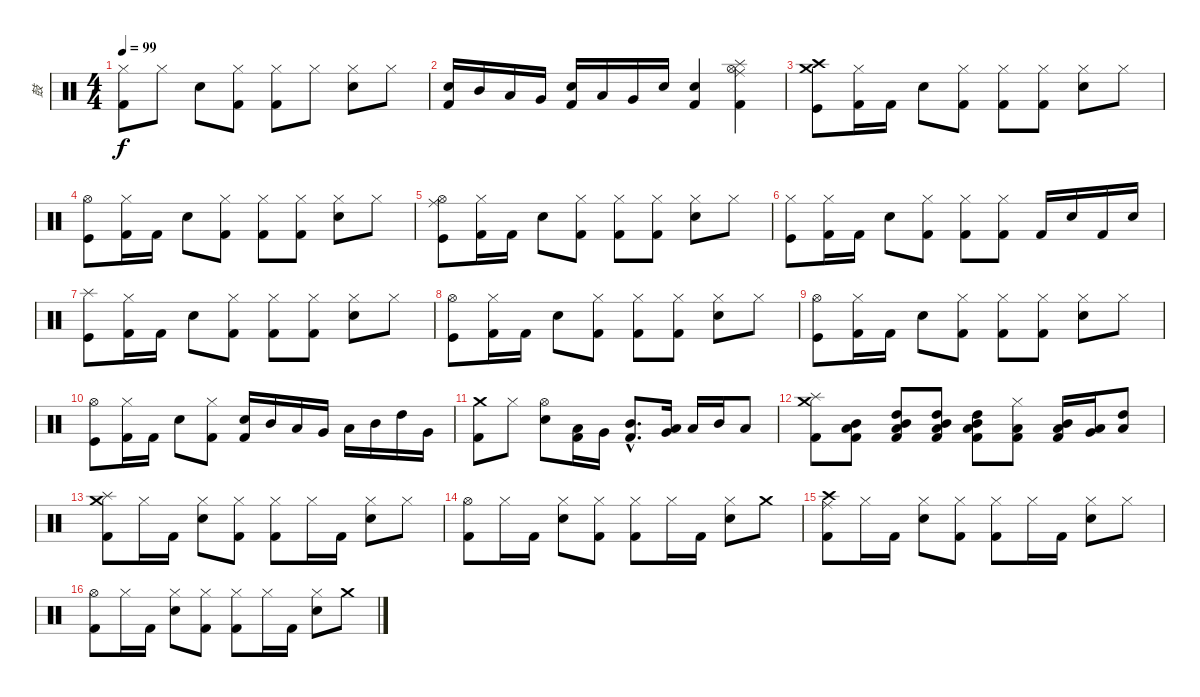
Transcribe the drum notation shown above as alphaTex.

\track ("鼓" "鼓") {instrument percussion}
\staff {score}
\articulation defaults
\ts (4 4)
\tempo 99
\clef neutral
\ks c
("Hi-Hat (closed)" "Kick (hit) 2").8{dy f} "Hi-Hat (closed)".8 "Electric Snare (hit)".8 ("Hi-Hat (closed)" "Kick (hit) 2").8 ("Hi-Hat (closed)" "Kick (hit) 2").8 "Hi-Hat (closed)".8 ("Hi-Hat (closed)" "Electric Snare (hit)").8 "Hi-Hat (closed)".8 |
("Electric Snare (hit)" "Kick (hit) 2").16 "Mid Tom (hit)".16 "Low Tom (hit)".16 "Very Low Tom (hit)".16 ("Electric Snare (hit)" "Kick (hit) 2").16 "Low Tom (hit)".16 "Very Low Tom (hit)".16 "Electric Snare (hit)".16 ("Electric Snare (hit)" "Kick (hit) 2").4 ("Splash (hit)" "Ride (middle)" "Hi-Hat (open)" "Kick (hit) 2").4 |
("Crash medium (hit)" "Crash high (hit)" "Kick (hit)").8 ("Hi-Hat (closed)" "Kick (hit) 2").16 "Kick (hit) 2".16 "Electric Snare (hit)".8 ("Hi-Hat (closed)" "Kick (hit) 2").8 ("Hi-Hat (closed)" "Kick (hit) 2").8 ("Hi-Hat (closed)" "Kick (hit) 2").8 ("Hi-Hat (closed)" "Electric Snare (hit)").8 "Hi-Hat (closed)".8 |
("Hi-Hat (open)" "Kick (hit)").8 ("Hi-Hat (closed)" "Kick (hit) 2").16 "Kick (hit) 2".16 "Electric Snare (hit)".8 ("Hi-Hat (closed)" "Kick (hit) 2").8 ("Hi-Hat (closed)" "Kick (hit) 2").8 ("Hi-Hat (closed)" "Kick (hit) 2").8 ("Hi-Hat (closed)" "Electric Snare (hit)").8 "Hi-Hat (closed)".8 |
("Ride (middle)" "Hi-Hat (open)" "Kick (hit)").8 ("Hi-Hat (closed)" "Kick (hit) 2").16 "Kick (hit) 2".16 "Electric Snare (hit)".8 ("Hi-Hat (closed)" "Kick (hit) 2").8 ("Hi-Hat (closed)" "Kick (hit) 2").8 ("Hi-Hat (closed)" "Kick (hit) 2").8 ("Hi-Hat (closed)" "Electric Snare (hit)").8 "Hi-Hat (closed)".8 |
("Hi-Hat (closed)" "Kick (hit)").8 ("Hi-Hat (closed)" "Kick (hit) 2").16 "Kick (hit) 2".16 "Electric Snare (hit)".8 ("Hi-Hat (closed)" "Kick (hit) 2").8 ("Hi-Hat (closed)" "Kick (hit) 2").8 ("Hi-Hat (closed)" "Kick (hit) 2").8 "Kick (hit) 2".16 "Electric Snare (hit)".16 "Kick (hit) 2".16 "Electric Snare (hit)".16 |
("Splash (hit)" "Kick (hit)").8 ("Hi-Hat (closed)" "Kick (hit) 2").16 "Kick (hit) 2".16 "Electric Snare (hit)".8 ("Hi-Hat (closed)" "Kick (hit) 2").8 ("Hi-Hat (closed)" "Kick (hit) 2").8 ("Hi-Hat (closed)" "Kick (hit) 2").8 ("Hi-Hat (closed)" "Electric Snare (hit)").8 "Hi-Hat (closed)".8 |
("Hi-Hat (open)" "Kick (hit)").8 ("Hi-Hat (closed)" "Kick (hit) 2").16 "Kick (hit) 2".16 "Electric Snare (hit)".8 ("Hi-Hat (closed)" "Kick (hit) 2").8 ("Hi-Hat (closed)" "Kick (hit) 2").8 ("Hi-Hat (closed)" "Kick (hit) 2").8 ("Hi-Hat (closed)" "Electric Snare (hit)").8 "Hi-Hat (closed)".8 |
("Hi-Hat (open)" "Kick (hit)").8 ("Hi-Hat (closed)" "Kick (hit) 2").16 "Kick (hit) 2".16 "Electric Snare (hit)".8 ("Hi-Hat (closed)" "Kick (hit) 2").8 ("Hi-Hat (closed)" "Kick (hit) 2").8 ("Hi-Hat (closed)" "Kick (hit) 2").8 ("Hi-Hat (closed)" "Electric Snare (hit)").8 "Hi-Hat (closed)".8 |
("Hi-Hat (open)" "Kick (hit)").8 ("Hi-Hat (closed)" "Kick (hit) 2").16 "Kick (hit) 2".16 "Electric Snare (hit)".8 ("Hi-Hat (closed)" "Kick (hit) 2").8 ("Electric Snare (hit)" "Kick (hit) 2").16 "Mid Tom (hit)".16 "Low Tom (hit)".16 "Very Low Tom (hit)".16 "Low Tom (hit)".16 "Mid Tom (hit)".16 "High Tom (hit)".16 "Very Low Tom (hit)".16 |
("Crash medium (hit)" "Kick (hit) 2").8 "Hi-Hat (closed)".8 ("Hi-Hat (open)" "Electric Snare (hit)").8 ("Low Tom (hit)" "Kick (hit) 2").16 "Very Low Tom (hit)".16 ("Mid Tom (hit)"{hac} "Kick (hit) 2"{hac}).8{d} ("Very Low Tom (hit)" "Low Tom (hit)").16 "Low Tom (hit)".16 "Mid Tom (hit)".16 "Low Floor Tom (hit)".8 |
("Splash (hit)" "Crash medium (hit)" "Kick (hit) 2").8 ("Mid Tom (hit)" "Low Tom (hit)" "Kick (hit) 2").8 ("Mid Tom (hit)" "High Tom (hit)" "Low Tom (hit)" "Kick (hit) 2").8 ("Mid Tom (hit)" "High Tom (hit)" "Low Tom (hit)" "Kick (hit) 2").8 ("Mid Tom (hit)" "High Tom (hit)" "Low Tom (hit)" "Kick (hit) 2").8 ("Hi-Hat (closed)" "Low Tom (hit)" "Kick (hit) 2").8 ("Mid Tom (hit)" "Low Tom (hit)" "Kick (hit) 2").16 ("Low Tom (hit)" "Very Low Tom (hit)").16 ("High Tom (hit)" "Low Floor Tom (hit)").8 |
("Splash (hit)" "Crash medium (hit)" "Kick (hit) 2").8 "Hi-Hat (closed)".16 "Kick (hit) 2".16 ("Hi-Hat (closed)" "Electric Snare (hit)").8 ("Hi-Hat (closed)" "Kick (hit) 2").8 ("Hi-Hat (closed)" "Kick (hit) 2").8 "Hi-Hat (closed)".16 "Kick (hit) 2".16 ("Hi-Hat (closed)" "Electric Snare (hit)").8 "Hi-Hat (closed)".8 |
("Hi-Hat (open)" "Kick (hit) 2").8 "Hi-Hat (closed)".16 "Kick (hit) 2".16 ("Hi-Hat (closed)" "Electric Snare (hit)").8 ("Hi-Hat (closed)" "Kick (hit) 2").8 ("Hi-Hat (closed)" "Kick (hit) 2").8 "Hi-Hat (closed)".16 "Kick (hit) 2".16 ("Hi-Hat (closed)" "Electric Snare (hit)").8 "Crash medium (hit)".8 |
("Ride (middle)" "Crash high (hit)" "Kick (hit) 2").8 "Hi-Hat (closed)".16 "Kick (hit) 2".16 ("Hi-Hat (closed)" "Electric Snare (hit)").8 ("Hi-Hat (closed)" "Kick (hit) 2").8 ("Hi-Hat (closed)" "Kick (hit) 2").8 "Hi-Hat (closed)".16 "Kick (hit) 2".16 ("Hi-Hat (closed)" "Electric Snare (hit)").8 "Hi-Hat (closed)".8 |
("Hi-Hat (open)" "Kick (hit) 2").8 "Hi-Hat (closed)".16 "Kick (hit) 2".16 ("Hi-Hat (closed)" "Electric Snare (hit)").8 ("Hi-Hat (closed)" "Kick (hit) 2").8 ("Hi-Hat (closed)" "Kick (hit) 2").8 "Hi-Hat (closed)".16 "Kick (hit) 2".16 ("Hi-Hat (closed)" "Electric Snare (hit)").8 "Crash medium (hit)".8
